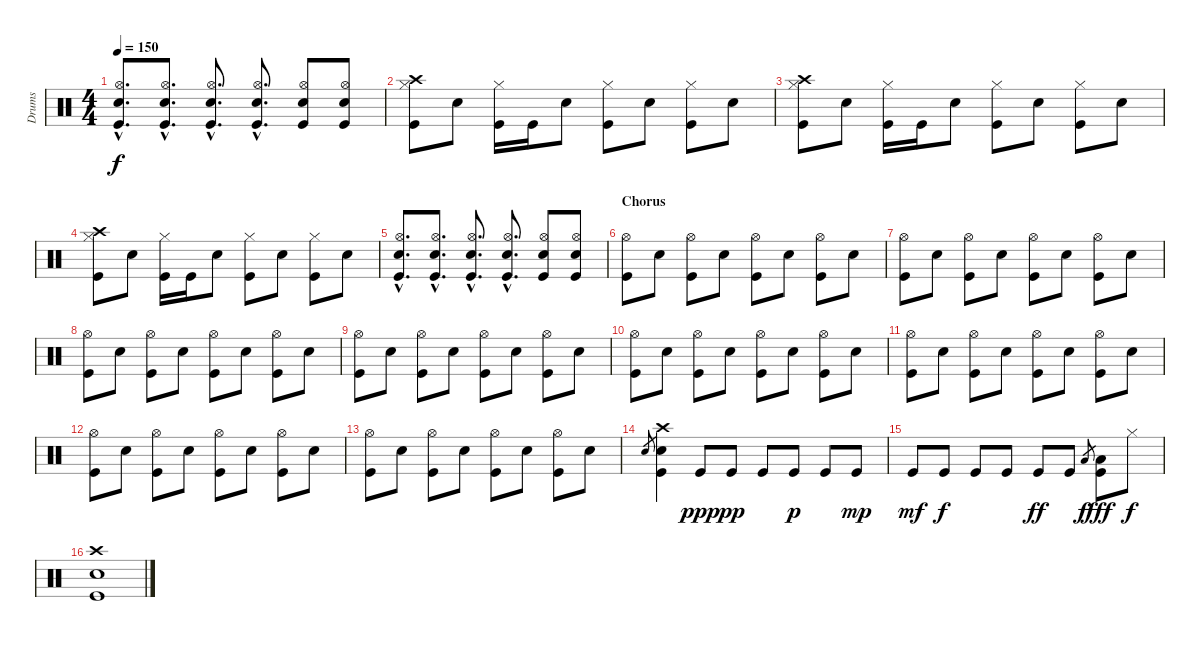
\track ("Drums" "Drums") {instrument percussion}
\staff {score}
\articulation defaults
\ts (4 4)
\tempo 150
\clef neutral
\ks c
("Electric Snare (hit)"{hac} "Hi-Hat (open)"{hac} "Kick (hit)"{hac}).8{d dy f} ("Electric Snare (hit)"{hac} "Hi-Hat (open)"{hac} "Kick (hit)"{hac}).8{d} ("Electric Snare (hit)"{hac} "Hi-Hat (open)"{hac} "Kick (hit)"{hac}).8{d} ("Electric Snare (hit)"{hac} "Hi-Hat (open)"{hac} "Kick (hit)"{hac}).8{d} ("Electric Snare (hit)" "Hi-Hat (open)" "Kick (hit)").8 ("Electric Snare (hit)" "Hi-Hat (open)" "Kick (hit)").8 |
("Hi-Hat (closed)" "Crash high (hit)" "Kick (hit)").8 "Electric Snare (hit)".8 ("Hi-Hat (closed)" "Kick (hit)").16 "Kick (hit)".16 "Electric Snare (hit)".8 ("Hi-Hat (closed)" "Kick (hit)").8 "Electric Snare (hit)".8 ("Hi-Hat (closed)" "Kick (hit)").8 "Electric Snare (hit)".8 |
("Hi-Hat (closed)" "Crash high (hit)" "Kick (hit)").8 "Electric Snare (hit)".8 ("Hi-Hat (closed)" "Kick (hit)").16 "Kick (hit)".16 "Electric Snare (hit)".8 ("Hi-Hat (closed)" "Kick (hit)").8 "Electric Snare (hit)".8 ("Hi-Hat (closed)" "Kick (hit)").8 "Electric Snare (hit)".8 |
("Hi-Hat (closed)" "Crash high (hit)" "Kick (hit)").8 "Electric Snare (hit)".8 ("Hi-Hat (closed)" "Kick (hit)").16 "Kick (hit)".16 "Electric Snare (hit)".8 ("Hi-Hat (closed)" "Kick (hit)").8 "Electric Snare (hit)".8 ("Hi-Hat (closed)" "Kick (hit)").8 "Electric Snare (hit)".8 |
("Electric Snare (hit)"{hac} "Hi-Hat (open)"{hac} "Kick (hit)"{hac}).8{d} ("Electric Snare (hit)"{hac} "Hi-Hat (open)"{hac} "Kick (hit)"{hac}).8{d} ("Electric Snare (hit)"{hac} "Hi-Hat (open)"{hac} "Kick (hit)"{hac}).8{d} ("Electric Snare (hit)"{hac} "Hi-Hat (open)"{hac} "Kick (hit)"{hac}).8{d} ("Electric Snare (hit)" "Hi-Hat (open)" "Kick (hit)").8 ("Electric Snare (hit)" "Hi-Hat (open)" "Kick (hit)").8 |
\section ("" "Chorus")
("Hi-Hat (open)" "Kick (hit)").8 "Electric Snare (hit)".8 ("Hi-Hat (open)" "Kick (hit)").8 "Electric Snare (hit)".8 ("Hi-Hat (open)" "Kick (hit)").8 "Electric Snare (hit)".8 ("Hi-Hat (open)" "Kick (hit)").8 "Electric Snare (hit)".8 |
("Hi-Hat (open)" "Kick (hit)").8 "Electric Snare (hit)".8 ("Hi-Hat (open)" "Kick (hit)").8 "Electric Snare (hit)".8 ("Hi-Hat (open)" "Kick (hit)").8 "Electric Snare (hit)".8 ("Hi-Hat (open)" "Kick (hit)").8 "Electric Snare (hit)".8 |
("Hi-Hat (open)" "Kick (hit)").8 "Electric Snare (hit)".8 ("Hi-Hat (open)" "Kick (hit)").8 "Electric Snare (hit)".8 ("Hi-Hat (open)" "Kick (hit)").8 "Electric Snare (hit)".8 ("Hi-Hat (open)" "Kick (hit)").8 "Electric Snare (hit)".8 |
("Hi-Hat (open)" "Kick (hit)").8 "Electric Snare (hit)".8 ("Hi-Hat (open)" "Kick (hit)").8 "Electric Snare (hit)".8 ("Hi-Hat (open)" "Kick (hit)").8 "Electric Snare (hit)".8 ("Hi-Hat (open)" "Kick (hit)").8 "Electric Snare (hit)".8 |
("Hi-Hat (open)" "Kick (hit)").8 "Electric Snare (hit)".8 ("Hi-Hat (open)" "Kick (hit)").8 "Electric Snare (hit)".8 ("Hi-Hat (open)" "Kick (hit)").8 "Electric Snare (hit)".8 ("Hi-Hat (open)" "Kick (hit)").8 "Electric Snare (hit)".8 |
("Hi-Hat (open)" "Kick (hit)").8 "Electric Snare (hit)".8 ("Hi-Hat (open)" "Kick (hit)").8 "Electric Snare (hit)".8 ("Hi-Hat (open)" "Kick (hit)").8 "Electric Snare (hit)".8 ("Hi-Hat (open)" "Kick (hit)").8 "Electric Snare (hit)".8 |
("Hi-Hat (open)" "Kick (hit)").8 "Electric Snare (hit)".8 ("Hi-Hat (open)" "Kick (hit)").8 "Electric Snare (hit)".8 ("Hi-Hat (open)" "Kick (hit)").8 "Electric Snare (hit)".8 ("Hi-Hat (open)" "Kick (hit)").8 "Electric Snare (hit)".8 |
("Hi-Hat (open)" "Kick (hit)").8 "Electric Snare (hit)".8 ("Hi-Hat (open)" "Kick (hit)").8 "Electric Snare (hit)".8 ("Hi-Hat (open)" "Kick (hit)").8 "Electric Snare (hit)".8 ("Hi-Hat (open)" "Kick (hit)").8 "Electric Snare (hit)".8 |
"Electric Snare (hit)".8{gr} ("Electric Snare (hit)" "Crash high (hit)" "Kick (hit)").4 "Kick (hit)".8{dy ppp} "Kick (hit)".8{dy pp} "Kick (hit)".8 "Kick (hit)".8{dy p} "Kick (hit)".8 "Kick (hit)".8{dy mp} |
"Kick (hit)".8{dy mf} "Kick (hit)".8{dy f} "Kick (hit)".8 "Kick (hit)".8 "Kick (hit)".8{dy ff} "Kick (hit)".8 "Low Tom (hit)".8{gr dy f} ("Low Tom (hit)" "Kick (hit)").8{dy fff} "Hi-Hat (closed)".8{dy f} |
("Electric Snare (hit)" "Crash high (hit)" "Kick (hit)").1
